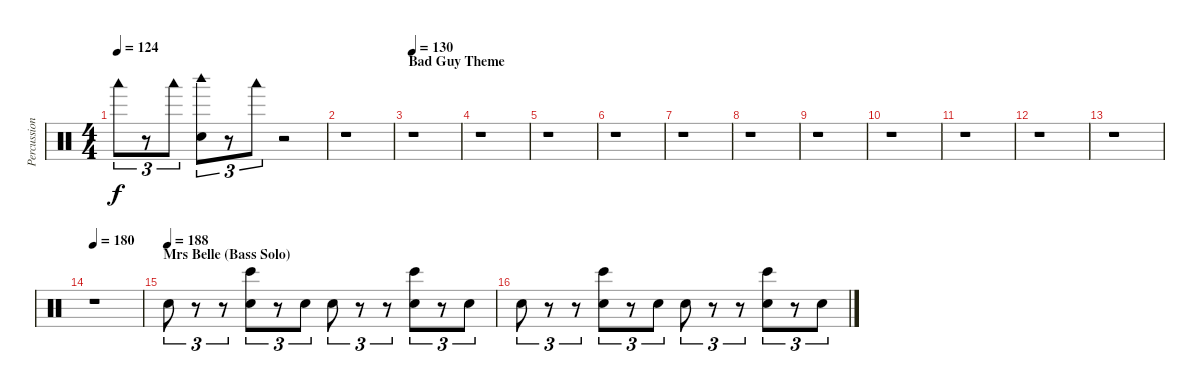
\track ("Percussion" "Percussion") {instrument percussion}
\staff {score}
\articulation defaults
\ts (4 4)
\tempo 124
\clef neutral
\ks c "Woodblock low (hit)".8{tu (3 2) dy f}
r.8{tu (3 2)} "Woodblock low (hit)".8{tu (3 2)} ("Woodblock high (hit)" "Snare (hit) 2").8{tu (3 2)} r.8{tu (3 2)} "Woodblock low (hit)".8{tu (3 2)} r.2 |
r.1 |
\section ("" "Bad Guy Theme")
\tempo 130
r.1 |
r.1 |
r.1 |
r.1 |
r.1 |
r.1 |
r.1 |
r.1 |
r.1 |
r.1 |
r.1 |
\tempo 180
r.1 |
\section ("" "Mrs Belle (Bass Solo)")
\tempo (188)
"Snare (hit) 2".8{tu (3 2)} r.8{tu (3 2)} r.8{tu (3 2)} ("Bongo High (hit)" "Snare (hit) 2").8{tu (3 2)} r.8{tu (3 2)} "Snare (hit) 2".8{tu (3 2)} "Snare (hit) 2".8{tu (3 2)} r.8{tu (3 2)} r.8{tu (3 2)} ("Bongo High (hit)" "Snare (hit) 2").8{tu (3 2)} r.8{tu (3 2)} "Snare (hit) 2".8{tu (3 2)} |
"Snare (hit) 2".8{tu (3 2)} r.8{tu (3 2)} r.8{tu (3 2)} ("Bongo High (hit)" "Snare (hit) 2").8{tu (3 2)} r.8{tu (3 2)} "Snare (hit) 2".8{tu (3 2)} "Snare (hit) 2".8{tu (3 2)} r.8{tu (3 2)} r.8{tu (3 2)} ("Bongo High (hit)" "Snare (hit) 2").8{tu (3 2)} r.8{tu (3 2)} "Snare (hit) 2".8{tu (3 2)}
